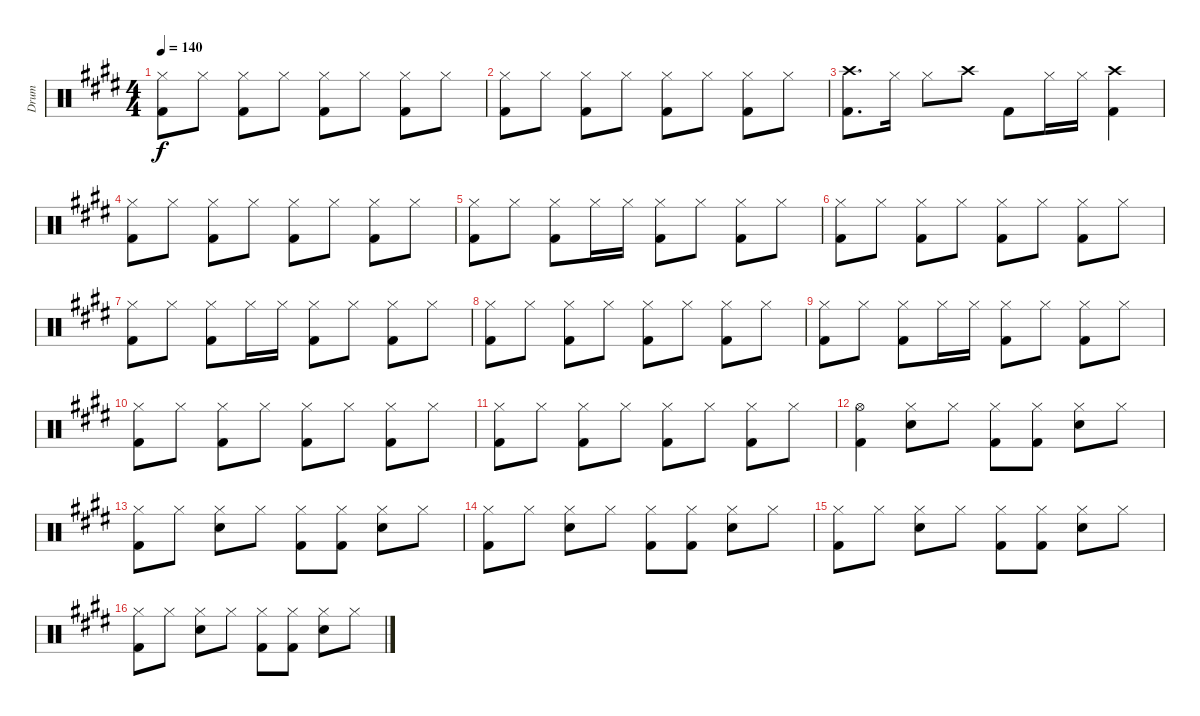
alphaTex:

\track ("Drum" "Drum") {instrument percussion}
\staff {score}
\articulation defaults
\ts (4 4)
\tempo 140
\clef neutral
\ks c#minor
("Hi-Hat (closed)" "Kick (hit) 2").8{dy f} "Hi-Hat (closed)".8 ("Hi-Hat (closed)" "Kick (hit) 2").8 "Hi-Hat (closed)".8 ("Hi-Hat (closed)" "Kick (hit) 2").8 "Hi-Hat (closed)".8 ("Hi-Hat (closed)" "Kick (hit) 2").8 "Hi-Hat (closed)".8 |
("Hi-Hat (closed)" "Kick (hit) 2").8 "Hi-Hat (closed)".8 ("Hi-Hat (closed)" "Kick (hit) 2").8 "Hi-Hat (closed)".8 ("Hi-Hat (closed)" "Kick (hit) 2").8 "Hi-Hat (closed)".8 ("Hi-Hat (closed)" "Kick (hit) 2").8 "Hi-Hat (closed)".8 |
("Crash high (hit)" "Kick (hit) 2").8{d} "Hi-Hat (closed)".16 "Hi-Hat (closed)".8 "Crash high (hit)".8 "Kick (hit) 2".8 "Hi-Hat (closed)".16 "Hi-Hat (closed)".16 ("Crash high (hit)" "Kick (hit) 2").4 |
("Hi-Hat (closed)" "Kick (hit) 2").8 "Hi-Hat (closed)".8 ("Hi-Hat (closed)" "Kick (hit) 2").8 "Hi-Hat (closed)".8 ("Hi-Hat (closed)" "Kick (hit) 2").8 "Hi-Hat (closed)".8 ("Hi-Hat (closed)" "Kick (hit) 2").8 "Hi-Hat (closed)".8 |
("Hi-Hat (closed)" "Kick (hit) 2").8 "Hi-Hat (closed)".8 ("Hi-Hat (closed)" "Kick (hit) 2").8 "Hi-Hat (closed)".16 "Hi-Hat (closed)".16 ("Hi-Hat (closed)" "Kick (hit) 2").8 "Hi-Hat (closed)".8 ("Hi-Hat (closed)" "Kick (hit) 2").8 "Hi-Hat (closed)".8 |
("Hi-Hat (closed)" "Kick (hit) 2").8 "Hi-Hat (closed)".8 ("Hi-Hat (closed)" "Kick (hit) 2").8 "Hi-Hat (closed)".8 ("Hi-Hat (closed)" "Kick (hit) 2").8 "Hi-Hat (closed)".8 ("Hi-Hat (closed)" "Kick (hit) 2").8 "Hi-Hat (closed)".8 |
("Hi-Hat (closed)" "Kick (hit) 2").8 "Hi-Hat (closed)".8 ("Hi-Hat (closed)" "Kick (hit) 2").8 "Hi-Hat (closed)".16 "Hi-Hat (closed)".16 ("Hi-Hat (closed)" "Kick (hit) 2").8 "Hi-Hat (closed)".8 ("Hi-Hat (closed)" "Kick (hit) 2").8 "Hi-Hat (closed)".8 |
("Hi-Hat (closed)" "Kick (hit) 2").8 "Hi-Hat (closed)".8 ("Hi-Hat (closed)" "Kick (hit) 2").8 "Hi-Hat (closed)".8 ("Hi-Hat (closed)" "Kick (hit) 2").8 "Hi-Hat (closed)".8 ("Hi-Hat (closed)" "Kick (hit) 2").8 "Hi-Hat (closed)".8 |
("Hi-Hat (closed)" "Kick (hit) 2").8 "Hi-Hat (closed)".8 ("Hi-Hat (closed)" "Kick (hit) 2").8 "Hi-Hat (closed)".16 "Hi-Hat (closed)".16 ("Hi-Hat (closed)" "Kick (hit) 2").8 "Hi-Hat (closed)".8 ("Hi-Hat (closed)" "Kick (hit) 2").8 "Hi-Hat (closed)".8 |
("Hi-Hat (closed)" "Kick (hit) 2").8 "Hi-Hat (closed)".8 ("Hi-Hat (closed)" "Kick (hit) 2").8 "Hi-Hat (closed)".8 ("Hi-Hat (closed)" "Kick (hit) 2").8 "Hi-Hat (closed)".8 ("Hi-Hat (closed)" "Kick (hit) 2").8 "Hi-Hat (closed)".8 |
("Hi-Hat (closed)" "Kick (hit) 2").8 "Hi-Hat (closed)".8 ("Hi-Hat (closed)" "Kick (hit) 2").8 "Hi-Hat (closed)".8 ("Hi-Hat (closed)" "Kick (hit) 2").8 "Hi-Hat (closed)".8 ("Hi-Hat (closed)" "Kick (hit) 2").8 "Hi-Hat (closed)".8 |
("Hi-Hat (open)" "Kick (hit) 2").4 ("Hi-Hat (closed)" "Snare (hit) 2").8 "Hi-Hat (closed)".8 ("Hi-Hat (closed)" "Kick (hit) 2").8 ("Hi-Hat (closed)" "Kick (hit) 2").8 ("Hi-Hat (closed)" "Snare (hit) 2").8 "Hi-Hat (closed)".8 |
("Hi-Hat (closed)" "Kick (hit) 2").8 "Hi-Hat (closed)".8 ("Hi-Hat (closed)" "Snare (hit) 2").8 "Hi-Hat (closed)".8 ("Hi-Hat (closed)" "Kick (hit) 2").8 ("Hi-Hat (closed)" "Kick (hit) 2").8 ("Hi-Hat (closed)" "Snare (hit) 2").8 "Hi-Hat (closed)".8 |
("Hi-Hat (closed)" "Kick (hit) 2").8 "Hi-Hat (closed)".8 ("Hi-Hat (closed)" "Snare (hit) 2").8 "Hi-Hat (closed)".8 ("Hi-Hat (closed)" "Kick (hit) 2").8 ("Hi-Hat (closed)" "Kick (hit) 2").8 ("Hi-Hat (closed)" "Snare (hit) 2").8 "Hi-Hat (closed)".8 |
("Hi-Hat (closed)" "Kick (hit) 2").8 "Hi-Hat (closed)".8 ("Hi-Hat (closed)" "Snare (hit) 2").8 "Hi-Hat (closed)".8 ("Hi-Hat (closed)" "Kick (hit) 2").8 ("Hi-Hat (closed)" "Kick (hit) 2").8 ("Hi-Hat (closed)" "Snare (hit) 2").8 "Hi-Hat (closed)".8 |
("Hi-Hat (closed)" "Kick (hit) 2").8 "Hi-Hat (closed)".8 ("Hi-Hat (closed)" "Snare (hit) 2").8 "Hi-Hat (closed)".8 ("Hi-Hat (closed)" "Kick (hit) 2").8 ("Hi-Hat (closed)" "Kick (hit) 2").8 ("Hi-Hat (closed)" "Snare (hit) 2").8 "Hi-Hat (closed)".8
